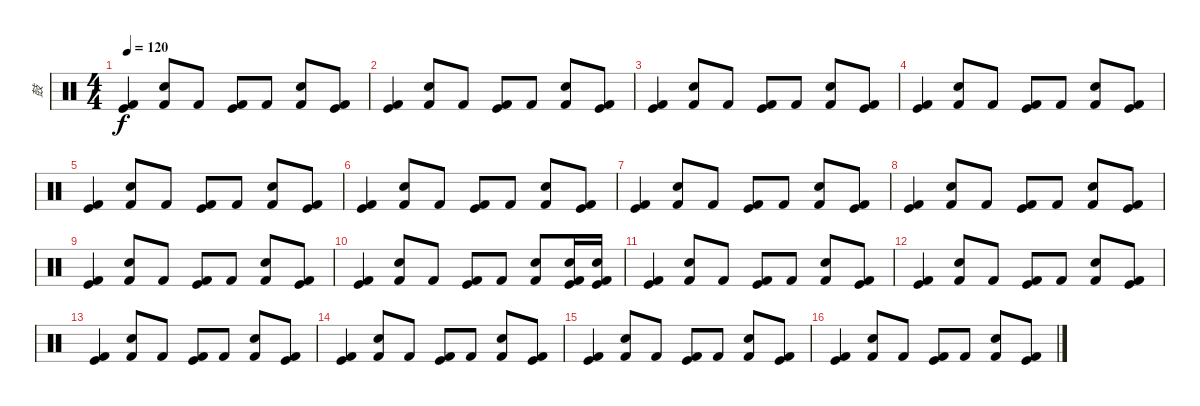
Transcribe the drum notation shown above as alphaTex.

\track ("鼓" "鼓") {instrument percussion}
\staff {score}
\articulation defaults
\ts (4 4)
\tempo 120
\clef neutral
\ks c
("Kick (hit) 2" "Kick (hit)").4{dy f} ("Kick (hit) 2" "Electric Snare (hit)").8 "Kick (hit) 2".8 ("Kick (hit) 2" "Kick (hit)").8 "Kick (hit) 2".8 ("Kick (hit) 2" "Electric Snare (hit)").8 ("Kick (hit) 2" "Kick (hit)").8 |
("Kick (hit) 2" "Kick (hit)").4 ("Kick (hit) 2" "Electric Snare (hit)").8 "Kick (hit) 2".8 ("Kick (hit) 2" "Kick (hit)").8 "Kick (hit) 2".8 ("Kick (hit) 2" "Electric Snare (hit)").8 ("Kick (hit) 2" "Kick (hit)").8 |
("Kick (hit) 2" "Kick (hit)").4 ("Kick (hit) 2" "Electric Snare (hit)").8 "Kick (hit) 2".8 ("Kick (hit) 2" "Kick (hit)").8 "Kick (hit) 2".8 ("Kick (hit) 2" "Electric Snare (hit)").8 ("Kick (hit) 2" "Kick (hit)").8 |
("Kick (hit) 2" "Kick (hit)").4 ("Kick (hit) 2" "Electric Snare (hit)").8 "Kick (hit) 2".8 ("Kick (hit) 2" "Kick (hit)").8 "Kick (hit) 2".8 ("Kick (hit) 2" "Electric Snare (hit)").8 ("Kick (hit) 2" "Kick (hit)").8 |
("Kick (hit) 2" "Kick (hit)").4 ("Kick (hit) 2" "Electric Snare (hit)").8 "Kick (hit) 2".8 ("Kick (hit) 2" "Kick (hit)").8 "Kick (hit) 2".8 ("Kick (hit) 2" "Electric Snare (hit)").8 ("Kick (hit) 2" "Kick (hit)").8 |
("Kick (hit) 2" "Kick (hit)").4 ("Kick (hit) 2" "Electric Snare (hit)").8 "Kick (hit) 2".8 ("Kick (hit) 2" "Kick (hit)").8 "Kick (hit) 2".8 ("Kick (hit) 2" "Electric Snare (hit)").8 ("Kick (hit) 2" "Kick (hit)").8 |
("Kick (hit) 2" "Kick (hit)").4 ("Kick (hit) 2" "Electric Snare (hit)").8 "Kick (hit) 2".8 ("Kick (hit) 2" "Kick (hit)").8 "Kick (hit) 2".8 ("Kick (hit) 2" "Electric Snare (hit)").8 ("Kick (hit) 2" "Kick (hit)").8 |
("Kick (hit) 2" "Kick (hit)").4 ("Kick (hit) 2" "Electric Snare (hit)").8 "Kick (hit) 2".8 ("Kick (hit) 2" "Kick (hit)").8 "Kick (hit) 2".8 ("Kick (hit) 2" "Electric Snare (hit)").8 ("Kick (hit) 2" "Kick (hit)").8 |
("Kick (hit) 2" "Kick (hit)").4 ("Kick (hit) 2" "Electric Snare (hit)").8 "Kick (hit) 2".8 ("Kick (hit) 2" "Kick (hit)").8 "Kick (hit) 2".8 ("Kick (hit) 2" "Electric Snare (hit)").8 ("Kick (hit) 2" "Kick (hit)").8 |
("Kick (hit) 2" "Kick (hit)").4 ("Kick (hit) 2" "Electric Snare (hit)").8 "Kick (hit) 2".8 ("Kick (hit) 2" "Kick (hit)").8 "Kick (hit) 2".8 ("Kick (hit) 2" "Electric Snare (hit)").8 ("Kick (hit) 2" "Kick (hit)" "Electric Snare (hit)").16 ("Kick (hit) 2" "Kick (hit)" "Electric Snare (hit)").16 |
("Kick (hit) 2" "Kick (hit)").4 ("Kick (hit) 2" "Electric Snare (hit)").8 "Kick (hit) 2".8 ("Kick (hit) 2" "Kick (hit)").8 "Kick (hit) 2".8 ("Kick (hit) 2" "Electric Snare (hit)").8 ("Kick (hit) 2" "Kick (hit)").8 |
("Kick (hit) 2" "Kick (hit)").4 ("Kick (hit) 2" "Electric Snare (hit)").8 "Kick (hit) 2".8 ("Kick (hit) 2" "Kick (hit)").8 "Kick (hit) 2".8 ("Kick (hit) 2" "Electric Snare (hit)").8 ("Kick (hit) 2" "Kick (hit)").8 |
("Kick (hit) 2" "Kick (hit)").4 ("Kick (hit) 2" "Electric Snare (hit)").8 "Kick (hit) 2".8 ("Kick (hit) 2" "Kick (hit)").8 "Kick (hit) 2".8 ("Kick (hit) 2" "Electric Snare (hit)").8 ("Kick (hit) 2" "Kick (hit)").8 |
("Kick (hit) 2" "Kick (hit)").4 ("Kick (hit) 2" "Electric Snare (hit)").8 "Kick (hit) 2".8 ("Kick (hit) 2" "Kick (hit)").8 "Kick (hit) 2".8 ("Kick (hit) 2" "Electric Snare (hit)").8 ("Kick (hit) 2" "Kick (hit)").8 |
("Kick (hit) 2" "Kick (hit)").4 ("Kick (hit) 2" "Electric Snare (hit)").8 "Kick (hit) 2".8 ("Kick (hit) 2" "Kick (hit)").8 "Kick (hit) 2".8 ("Kick (hit) 2" "Electric Snare (hit)").8 ("Kick (hit) 2" "Kick (hit)").8 |
("Kick (hit) 2" "Kick (hit)").4 ("Kick (hit) 2" "Electric Snare (hit)").8 "Kick (hit) 2".8 ("Kick (hit) 2" "Kick (hit)").8 "Kick (hit) 2".8 ("Kick (hit) 2" "Electric Snare (hit)").8 ("Kick (hit) 2" "Kick (hit)").8
